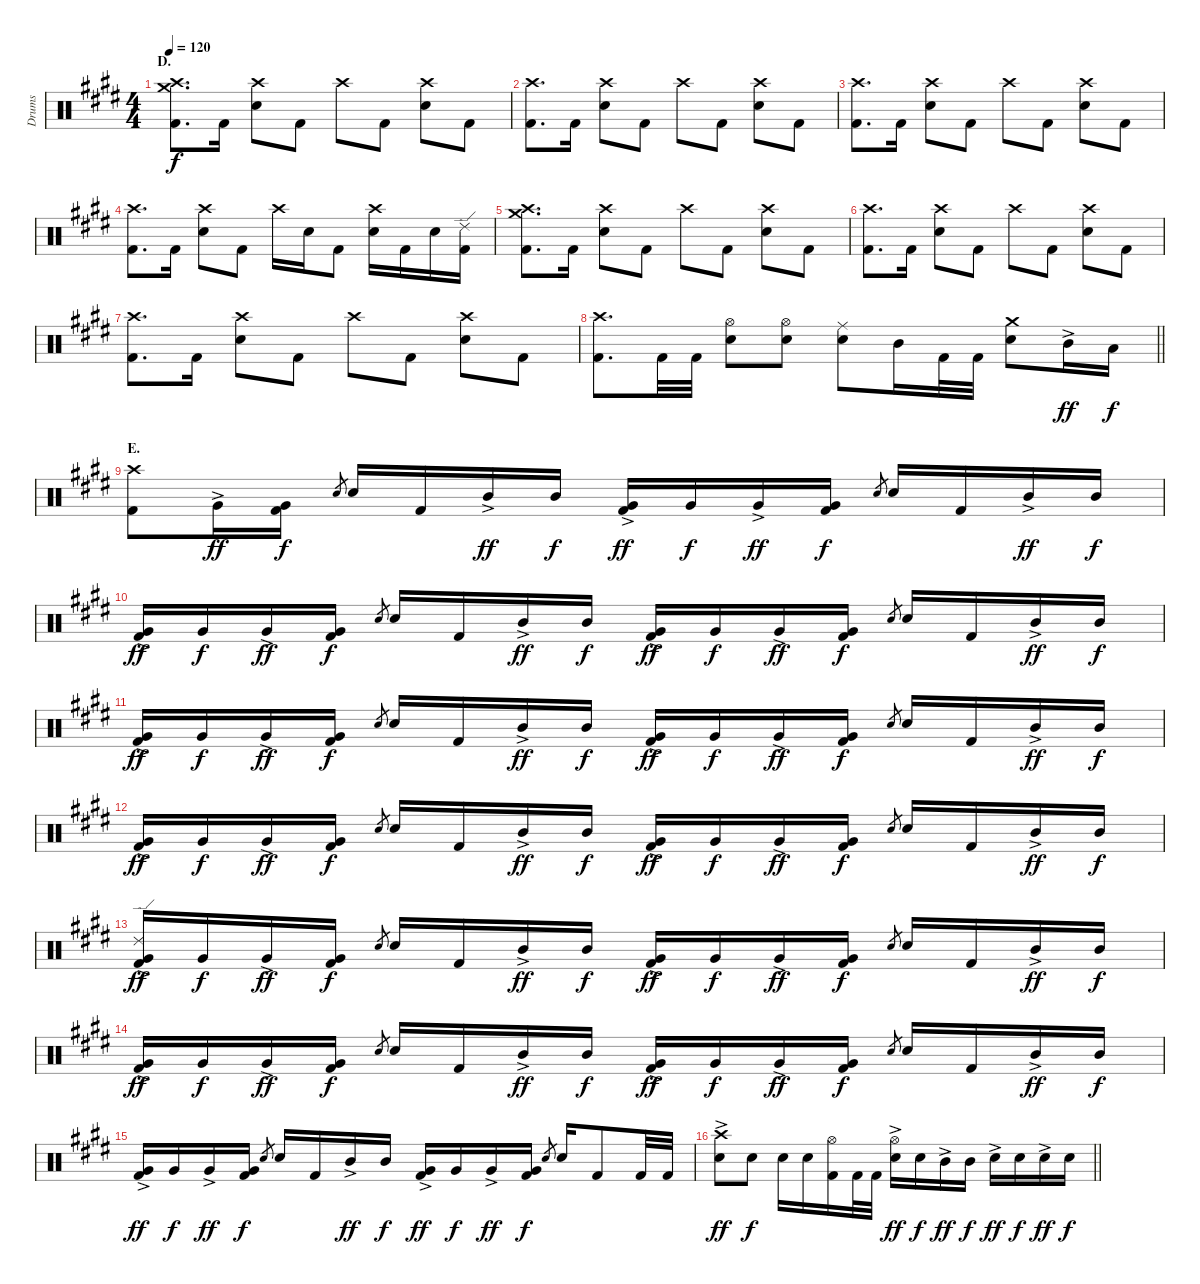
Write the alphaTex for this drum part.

\track ("Drums" "Drums") {instrument percussion}
\staff {score}
\articulation defaults
\ts (4 4)
\section ("" "D.")
\tempo 120
\clef neutral
\ks e
("Crash medium (hit)" "Crash high (hit)" "Kick (hit) 2").8{d dy f} "Kick (hit) 2".16 ("Crash high (hit)" "Electric Snare (hit)").8 "Kick (hit) 2".8 "Crash high (hit)".8 "Kick (hit) 2".8 ("Crash high (hit)" "Electric Snare (hit)").8 "Kick (hit) 2".8 |
("Crash high (hit)" "Kick (hit) 2").8{d} "Kick (hit) 2".16 ("Crash high (hit)" "Electric Snare (hit)").8 "Kick (hit) 2".8 "Crash high (hit)".8 "Kick (hit) 2".8 ("Crash high (hit)" "Electric Snare (hit)").8 "Kick (hit) 2".8 |
("Crash high (hit)" "Kick (hit) 2").8{d} "Kick (hit) 2".16 ("Crash high (hit)" "Electric Snare (hit)").8 "Kick (hit) 2".8 "Crash high (hit)".8 "Kick (hit) 2".8 ("Crash high (hit)" "Electric Snare (hit)").8 "Kick (hit) 2".8 |
("Crash high (hit)" "Kick (hit) 2").8{d} "Kick (hit) 2".16 ("Crash high (hit)" "Electric Snare (hit)").8 "Kick (hit) 2".8 "Crash high (hit)".16 "Electric Snare (hit)".16 "Kick (hit) 2".8 ("Crash high (hit)" "Electric Snare (hit)").16 "Kick (hit) 2".16 "Electric Snare (hit)".16 ("Ride (edge) 2" "Kick (hit) 2").16 |
("Crash medium (hit)" "Crash high (hit)" "Kick (hit) 2").8{d} "Kick (hit) 2".16 ("Crash high (hit)" "Electric Snare (hit)").8 "Kick (hit) 2".8 "Crash high (hit)".8 "Kick (hit) 2".8 ("Crash high (hit)" "Electric Snare (hit)").8 "Kick (hit) 2".8 |
("Crash high (hit)" "Kick (hit) 2").8{d} "Kick (hit) 2".16 ("Crash high (hit)" "Electric Snare (hit)").8 "Kick (hit) 2".8 "Crash high (hit)".8 "Kick (hit) 2".8 ("Crash high (hit)" "Electric Snare (hit)").8 "Kick (hit) 2".8 |
("Crash high (hit)" "Kick (hit) 2").8{d} "Kick (hit) 2".16 ("Crash high (hit)" "Electric Snare (hit)").8 "Kick (hit) 2".8 "Crash high (hit)".8 "Kick (hit) 2".8 ("Crash high (hit)" "Electric Snare (hit)").8 "Kick (hit) 2".8 |
\barLineRight lightlight
("Crash high (hit)" "Kick (hit) 2").8{d} "Kick (hit) 2".32 "Kick (hit) 2".32 ("Hi-Hat (open)" "Electric Snare (hit)").8 ("Hi-Hat (open)" "Electric Snare (hit)").8 ("Ride (middle)" "Electric Snare (hit)").8 "Mid Tom (hit)".16 "Kick (hit) 2".32 "Kick (hit) 2".32 ("Crash medium (hit)" "Electric Snare (hit)").8 "Mid Tom (hit)"{ac}.16{dy ff} "Low Tom (hit)".16{dy f} |
\section ("" "E.")
("Crash high (hit)" "Kick (hit) 2").8 "Very Low Tom (hit)"{ac}.16{dy ff} ("Very Low Tom (hit)" "Kick (hit) 2").16{dy f} "Electric Snare (hit)".8{gr} "Electric Snare (hit)".16 "Kick (hit) 2".16 "Mid Tom (hit)"{ac}.16{dy ff} "Mid Tom (hit)".16{dy f} ("Very Low Tom (hit)"{ac} "Kick (hit) 2").16{dy ff} "Very Low Tom (hit)".16{dy f} "Very Low Tom (hit)"{ac}.16{dy ff} ("Very Low Tom (hit)" "Kick (hit) 2").16{dy f} "Electric Snare (hit)".8{gr} "Electric Snare (hit)".16 "Kick (hit) 2".16 "Mid Tom (hit)"{ac}.16{dy ff} "Mid Tom (hit)".16{dy f} |
("Very Low Tom (hit)"{ac} "Kick (hit) 2").16{dy ff} "Very Low Tom (hit)".16{dy f} "Very Low Tom (hit)"{ac}.16{dy ff} ("Very Low Tom (hit)" "Kick (hit) 2").16{dy f} "Electric Snare (hit)".8{gr} "Electric Snare (hit)".16 "Kick (hit) 2".16 "Mid Tom (hit)"{ac}.16{dy ff} "Mid Tom (hit)".16{dy f} ("Very Low Tom (hit)"{ac} "Kick (hit) 2").16{dy ff} "Very Low Tom (hit)".16{dy f} "Very Low Tom (hit)"{ac}.16{dy ff} ("Very Low Tom (hit)" "Kick (hit) 2").16{dy f} "Electric Snare (hit)".8{gr} "Electric Snare (hit)".16 "Kick (hit) 2".16 "Mid Tom (hit)"{ac}.16{dy ff} "Mid Tom (hit)".16{dy f} |
("Very Low Tom (hit)"{ac} "Kick (hit) 2").16{dy ff} "Very Low Tom (hit)".16{dy f} "Very Low Tom (hit)"{ac}.16{dy ff} ("Very Low Tom (hit)" "Kick (hit) 2").16{dy f} "Electric Snare (hit)".8{gr} "Electric Snare (hit)".16 "Kick (hit) 2".16 "Mid Tom (hit)"{ac}.16{dy ff} "Mid Tom (hit)".16{dy f} ("Very Low Tom (hit)"{ac} "Kick (hit) 2").16{dy ff} "Very Low Tom (hit)".16{dy f} "Very Low Tom (hit)"{ac}.16{dy ff} ("Very Low Tom (hit)" "Kick (hit) 2").16{dy f} "Electric Snare (hit)".8{gr} "Electric Snare (hit)".16 "Kick (hit) 2".16 "Mid Tom (hit)"{ac}.16{dy ff} "Mid Tom (hit)".16{dy f} |
("Very Low Tom (hit)"{ac} "Kick (hit) 2").16{dy ff} "Very Low Tom (hit)".16{dy f} "Very Low Tom (hit)"{ac}.16{dy ff} ("Very Low Tom (hit)" "Kick (hit) 2").16{dy f} "Electric Snare (hit)".8{gr} "Electric Snare (hit)".16 "Kick (hit) 2".16 "Mid Tom (hit)"{ac}.16{dy ff} "Mid Tom (hit)".16{dy f} ("Very Low Tom (hit)"{ac} "Kick (hit) 2").16{dy ff} "Very Low Tom (hit)".16{dy f} "Very Low Tom (hit)"{ac}.16{dy ff} ("Very Low Tom (hit)" "Kick (hit) 2").16{dy f} "Electric Snare (hit)".8{gr} "Electric Snare (hit)".16 "Kick (hit) 2".16 "Mid Tom (hit)"{ac}.16{dy ff} "Mid Tom (hit)".16{dy f} |
("Ride (edge) 2" "Very Low Tom (hit)"{ac} "Kick (hit) 2").16{dy ff} "Very Low Tom (hit)".16{dy f} "Very Low Tom (hit)"{ac}.16{dy ff} ("Very Low Tom (hit)" "Kick (hit) 2").16{dy f} "Electric Snare (hit)".8{gr} "Electric Snare (hit)".16 "Kick (hit) 2".16 "Mid Tom (hit)"{ac}.16{dy ff} "Mid Tom (hit)".16{dy f} ("Very Low Tom (hit)"{ac} "Kick (hit) 2").16{dy ff} "Very Low Tom (hit)".16{dy f} "Very Low Tom (hit)"{ac}.16{dy ff} ("Very Low Tom (hit)" "Kick (hit) 2").16{dy f} "Electric Snare (hit)".8{gr} "Electric Snare (hit)".16 "Kick (hit) 2".16 "Mid Tom (hit)"{ac}.16{dy ff} "Mid Tom (hit)".16{dy f} |
("Very Low Tom (hit)"{ac} "Kick (hit) 2").16{dy ff} "Very Low Tom (hit)".16{dy f} "Very Low Tom (hit)"{ac}.16{dy ff} ("Very Low Tom (hit)" "Kick (hit) 2").16{dy f} "Electric Snare (hit)".8{gr} "Electric Snare (hit)".16 "Kick (hit) 2".16 "Mid Tom (hit)"{ac}.16{dy ff} "Mid Tom (hit)".16{dy f} ("Very Low Tom (hit)"{ac} "Kick (hit) 2").16{dy ff} "Very Low Tom (hit)".16{dy f} "Very Low Tom (hit)"{ac}.16{dy ff} ("Very Low Tom (hit)" "Kick (hit) 2").16{dy f} "Electric Snare (hit)".8{gr} "Electric Snare (hit)".16 "Kick (hit) 2".16 "Mid Tom (hit)"{ac}.16{dy ff} "Mid Tom (hit)".16{dy f} |
("Very Low Tom (hit)"{ac} "Kick (hit) 2").16{dy ff} "Very Low Tom (hit)".16{dy f} "Very Low Tom (hit)"{ac}.16{dy ff} ("Very Low Tom (hit)" "Kick (hit) 2").16{dy f} "Electric Snare (hit)".8{gr} "Electric Snare (hit)".16 "Kick (hit) 2".16 "Mid Tom (hit)"{ac}.16{dy ff} "Mid Tom (hit)".16{dy f} ("Very Low Tom (hit)"{ac} "Kick (hit) 2").16{dy ff} "Very Low Tom (hit)".16{dy f} "Very Low Tom (hit)"{ac}.16{dy ff} ("Very Low Tom (hit)" "Kick (hit) 2").16{dy f} "Electric Snare (hit)".8{gr} "Electric Snare (hit)".16 "Kick (hit) 2".8 "Kick (hit) 2".32 "Kick (hit) 2".32 |
\barLineRight lightlight
("Crash high (hit)" "Electric Snare (hit)"{ac}).8{dy ff} "Electric Snare (hit)".8{dy f} "Electric Snare (hit)".16 "Electric Snare (hit)".16 ("Hi-Hat (open)" "Kick (hit) 2").16 "Kick (hit) 2".32 "Kick (hit) 2".32 ("Hi-Hat (open)" "Electric Snare (hit)"{ac}).16{dy ff} "Electric Snare (hit)".16{dy f} "Mid Tom (hit)"{ac}.16{dy ff} "Mid Tom (hit)".16{dy f} "Electric Snare (hit)"{ac}.16{dy ff} "Electric Snare (hit)".16{dy f} "Electric Snare (hit)"{ac}.16{dy ff} "Electric Snare (hit)".16{dy f}
